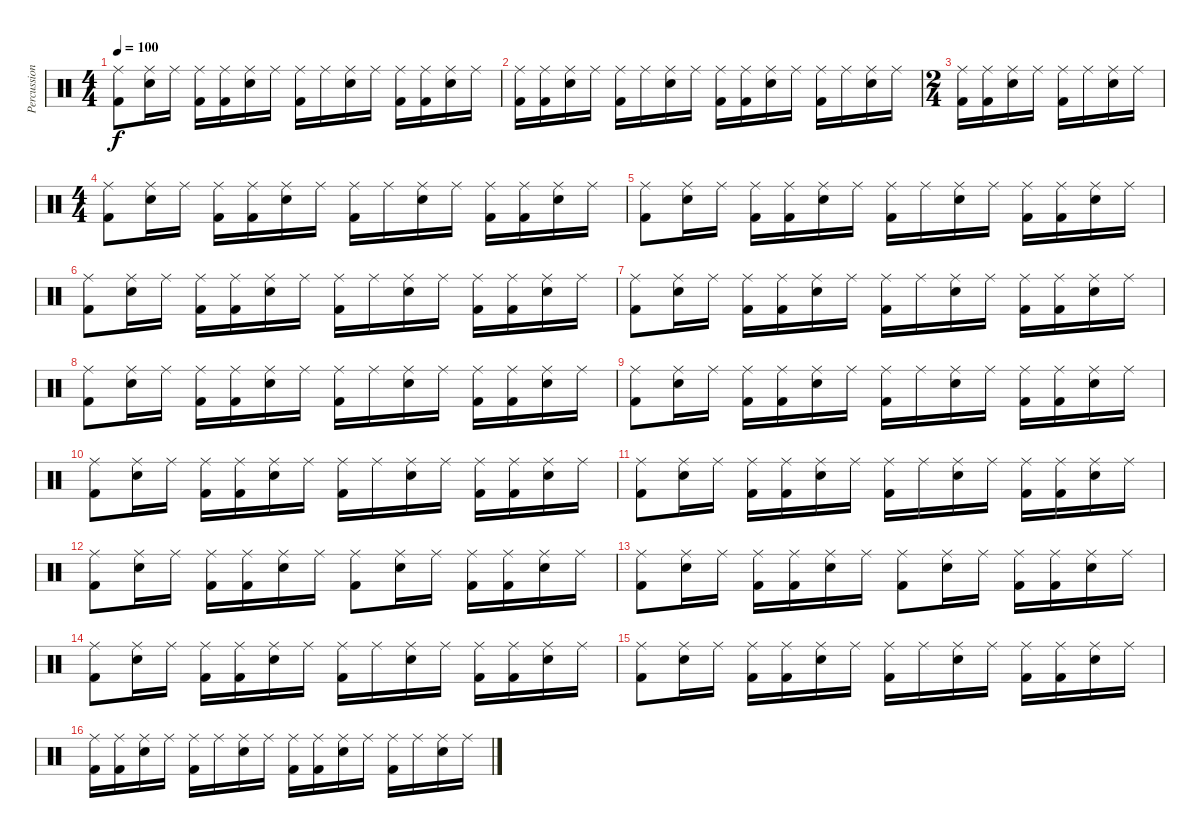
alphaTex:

\track ("Percussion" "Percussion") {instrument percussion}
\staff {score}
\articulation defaults
\ts (4 4)
\tempo 100
\clef neutral
\ks c
("Ride (middle)" "Kick (hit) 2").8{dy f} ("Ride (middle)" "Electric Snare (hit)").16 "Ride (middle)".16 ("Ride (middle)" "Kick (hit) 2").16 ("Ride (middle)" "Kick (hit) 2").16 ("Ride (middle)" "Electric Snare (hit)").16 "Ride (middle)".16 ("Ride (middle)" "Kick (hit) 2").16 "Ride (middle)".16 ("Ride (middle)" "Electric Snare (hit)").16 "Ride (middle)".16 ("Ride (middle)" "Kick (hit) 2").16 ("Ride (middle)" "Kick (hit) 2").16 ("Ride (middle)" "Electric Snare (hit)").16 "Ride (middle)".16 |
("Ride (middle)" "Kick (hit) 2").16 ("Ride (middle)" "Kick (hit) 2").16 ("Ride (middle)" "Electric Snare (hit)").16 "Ride (middle)".16 ("Ride (middle)" "Kick (hit) 2").16 "Ride (middle)".16 ("Ride (middle)" "Electric Snare (hit)").16 "Ride (middle)".16 ("Ride (middle)" "Kick (hit) 2").16 ("Ride (middle)" "Kick (hit) 2").16 ("Ride (middle)" "Electric Snare (hit)").16 "Ride (middle)".16 ("Ride (middle)" "Kick (hit) 2").16 "Ride (middle)".16 ("Ride (middle)" "Electric Snare (hit)").16 "Ride (middle)".16 |
\ts (2 4)
("Ride (middle)" "Kick (hit) 2").16 ("Ride (middle)" "Kick (hit) 2").16 ("Ride (middle)" "Electric Snare (hit)").16 "Ride (middle)".16 ("Ride (middle)" "Kick (hit) 2").16 "Ride (middle)".16 ("Ride (middle)" "Electric Snare (hit)").16 "Ride (middle)".16 |
\ts (4 4)
("Ride (middle)" "Kick (hit) 2").8 ("Ride (middle)" "Electric Snare (hit)").16 "Ride (middle)".16 ("Ride (middle)" "Kick (hit) 2").16 ("Ride (middle)" "Kick (hit) 2").16 ("Ride (middle)" "Electric Snare (hit)").16 "Ride (middle)".16 ("Ride (middle)" "Kick (hit) 2").16 "Ride (middle)".16 ("Ride (middle)" "Electric Snare (hit)").16 "Ride (middle)".16 ("Ride (middle)" "Kick (hit) 2").16 ("Ride (middle)" "Kick (hit) 2").16 ("Ride (middle)" "Electric Snare (hit)").16 "Ride (middle)".16 |
("Ride (middle)" "Kick (hit) 2").8 ("Ride (middle)" "Electric Snare (hit)").16 "Ride (middle)".16 ("Ride (middle)" "Kick (hit) 2").16 ("Ride (middle)" "Kick (hit) 2").16 ("Ride (middle)" "Electric Snare (hit)").16 "Ride (middle)".16 ("Ride (middle)" "Kick (hit) 2").16 "Ride (middle)".16 ("Ride (middle)" "Electric Snare (hit)").16 "Ride (middle)".16 ("Ride (middle)" "Kick (hit) 2").16 ("Ride (middle)" "Kick (hit) 2").16 ("Ride (middle)" "Electric Snare (hit)").16 "Ride (middle)".16 |
("Ride (middle)" "Kick (hit) 2").8 ("Ride (middle)" "Electric Snare (hit)").16 "Ride (middle)".16 ("Ride (middle)" "Kick (hit) 2").16 ("Ride (middle)" "Kick (hit) 2").16 ("Ride (middle)" "Electric Snare (hit)").16 "Ride (middle)".16 ("Ride (middle)" "Kick (hit) 2").16 "Ride (middle)".16 ("Ride (middle)" "Electric Snare (hit)").16 "Ride (middle)".16 ("Ride (middle)" "Kick (hit) 2").16 ("Ride (middle)" "Kick (hit) 2").16 ("Ride (middle)" "Electric Snare (hit)").16 "Ride (middle)".16 |
("Ride (middle)" "Kick (hit) 2").8 ("Ride (middle)" "Electric Snare (hit)").16 "Ride (middle)".16 ("Ride (middle)" "Kick (hit) 2").16 ("Ride (middle)" "Kick (hit) 2").16 ("Ride (middle)" "Electric Snare (hit)").16 "Ride (middle)".16 ("Ride (middle)" "Kick (hit) 2").16 "Ride (middle)".16 ("Ride (middle)" "Electric Snare (hit)").16 "Ride (middle)".16 ("Ride (middle)" "Kick (hit) 2").16 ("Ride (middle)" "Kick (hit) 2").16 ("Ride (middle)" "Electric Snare (hit)").16 "Ride (middle)".16 |
("Ride (middle)" "Kick (hit) 2").8 ("Ride (middle)" "Electric Snare (hit)").16 "Ride (middle)".16 ("Ride (middle)" "Kick (hit) 2").16 ("Ride (middle)" "Kick (hit) 2").16 ("Ride (middle)" "Electric Snare (hit)").16 "Ride (middle)".16 ("Ride (middle)" "Kick (hit) 2").16 "Ride (middle)".16 ("Ride (middle)" "Electric Snare (hit)").16 "Ride (middle)".16 ("Ride (middle)" "Kick (hit) 2").16 ("Ride (middle)" "Kick (hit) 2").16 ("Ride (middle)" "Electric Snare (hit)").16 "Ride (middle)".16 |
("Ride (middle)" "Kick (hit) 2").8 ("Ride (middle)" "Electric Snare (hit)").16 "Ride (middle)".16 ("Ride (middle)" "Kick (hit) 2").16 ("Ride (middle)" "Kick (hit) 2").16 ("Ride (middle)" "Electric Snare (hit)").16 "Ride (middle)".16 ("Ride (middle)" "Kick (hit) 2").16 "Ride (middle)".16 ("Ride (middle)" "Electric Snare (hit)").16 "Ride (middle)".16 ("Ride (middle)" "Kick (hit) 2").16 ("Ride (middle)" "Kick (hit) 2").16 ("Ride (middle)" "Electric Snare (hit)").16 "Ride (middle)".16 |
("Ride (middle)" "Kick (hit) 2").8 ("Ride (middle)" "Electric Snare (hit)").16 "Ride (middle)".16 ("Ride (middle)" "Kick (hit) 2").16 ("Ride (middle)" "Kick (hit) 2").16 ("Ride (middle)" "Electric Snare (hit)").16 "Ride (middle)".16 ("Ride (middle)" "Kick (hit) 2").16 "Ride (middle)".16 ("Ride (middle)" "Electric Snare (hit)").16 "Ride (middle)".16 ("Ride (middle)" "Kick (hit) 2").16 ("Ride (middle)" "Kick (hit) 2").16 ("Ride (middle)" "Electric Snare (hit)").16 "Ride (middle)".16 |
("Ride (middle)" "Kick (hit) 2").8 ("Ride (middle)" "Electric Snare (hit)").16 "Ride (middle)".16 ("Ride (middle)" "Kick (hit) 2").16 ("Ride (middle)" "Kick (hit) 2").16 ("Ride (middle)" "Electric Snare (hit)").16 "Ride (middle)".16 ("Ride (middle)" "Kick (hit) 2").16 "Ride (middle)".16 ("Ride (middle)" "Electric Snare (hit)").16 "Ride (middle)".16 ("Ride (middle)" "Kick (hit) 2").16 ("Ride (middle)" "Kick (hit) 2").16 ("Ride (middle)" "Electric Snare (hit)").16 "Ride (middle)".16 |
("Ride (middle)" "Kick (hit) 2").8 ("Ride (middle)" "Electric Snare (hit)").16 "Ride (middle)".16 ("Ride (middle)" "Kick (hit) 2").16 ("Ride (middle)" "Kick (hit) 2").16 ("Ride (middle)" "Electric Snare (hit)").16 "Ride (middle)".16 ("Ride (middle)" "Kick (hit) 2").8 ("Ride (middle)" "Electric Snare (hit)").16 "Ride (middle)".16 ("Ride (middle)" "Kick (hit) 2").16 ("Ride (middle)" "Kick (hit) 2").16 ("Ride (middle)" "Electric Snare (hit)").16 "Ride (middle)".16 |
("Ride (middle)" "Kick (hit) 2").8 ("Ride (middle)" "Electric Snare (hit)").16 "Ride (middle)".16 ("Ride (middle)" "Kick (hit) 2").16 ("Ride (middle)" "Kick (hit) 2").16 ("Ride (middle)" "Electric Snare (hit)").16 "Ride (middle)".16 ("Ride (middle)" "Kick (hit) 2").8 ("Ride (middle)" "Electric Snare (hit)").16 "Ride (middle)".16 ("Ride (middle)" "Kick (hit) 2").16 ("Ride (middle)" "Kick (hit) 2").16 ("Ride (middle)" "Electric Snare (hit)").16 "Ride (middle)".16 |
("Ride (middle)" "Kick (hit) 2").8 ("Ride (middle)" "Electric Snare (hit)").16 "Ride (middle)".16 ("Ride (middle)" "Kick (hit) 2").16 ("Ride (middle)" "Kick (hit) 2").16 ("Ride (middle)" "Electric Snare (hit)").16 "Ride (middle)".16 ("Ride (middle)" "Kick (hit) 2").16 "Ride (middle)".16 ("Ride (middle)" "Electric Snare (hit)").16 "Ride (middle)".16 ("Ride (middle)" "Kick (hit) 2").16 ("Ride (middle)" "Kick (hit) 2").16 ("Ride (middle)" "Electric Snare (hit)").16 "Ride (middle)".16 |
("Ride (middle)" "Kick (hit) 2").8 ("Ride (middle)" "Electric Snare (hit)").16 "Ride (middle)".16 ("Ride (middle)" "Kick (hit) 2").16 ("Ride (middle)" "Kick (hit) 2").16 ("Ride (middle)" "Electric Snare (hit)").16 "Ride (middle)".16 ("Ride (middle)" "Kick (hit) 2").16 "Ride (middle)".16 ("Ride (middle)" "Electric Snare (hit)").16 "Ride (middle)".16 ("Ride (middle)" "Kick (hit) 2").16 ("Ride (middle)" "Kick (hit) 2").16 ("Ride (middle)" "Electric Snare (hit)").16 "Ride (middle)".16 |
("Ride (middle)" "Kick (hit) 2").16 ("Ride (middle)" "Kick (hit) 2").16 ("Ride (middle)" "Electric Snare (hit)").16 "Ride (middle)".16 ("Ride (middle)" "Kick (hit) 2").16 "Ride (middle)".16 ("Ride (middle)" "Electric Snare (hit)").16 "Ride (middle)".16 ("Ride (middle)" "Kick (hit) 2").16 ("Ride (middle)" "Kick (hit) 2").16 ("Ride (middle)" "Electric Snare (hit)").16 "Ride (middle)".16 ("Ride (middle)" "Kick (hit) 2").16 "Ride (middle)".16 ("Ride (middle)" "Electric Snare (hit)").16 "Ride (middle)".16
